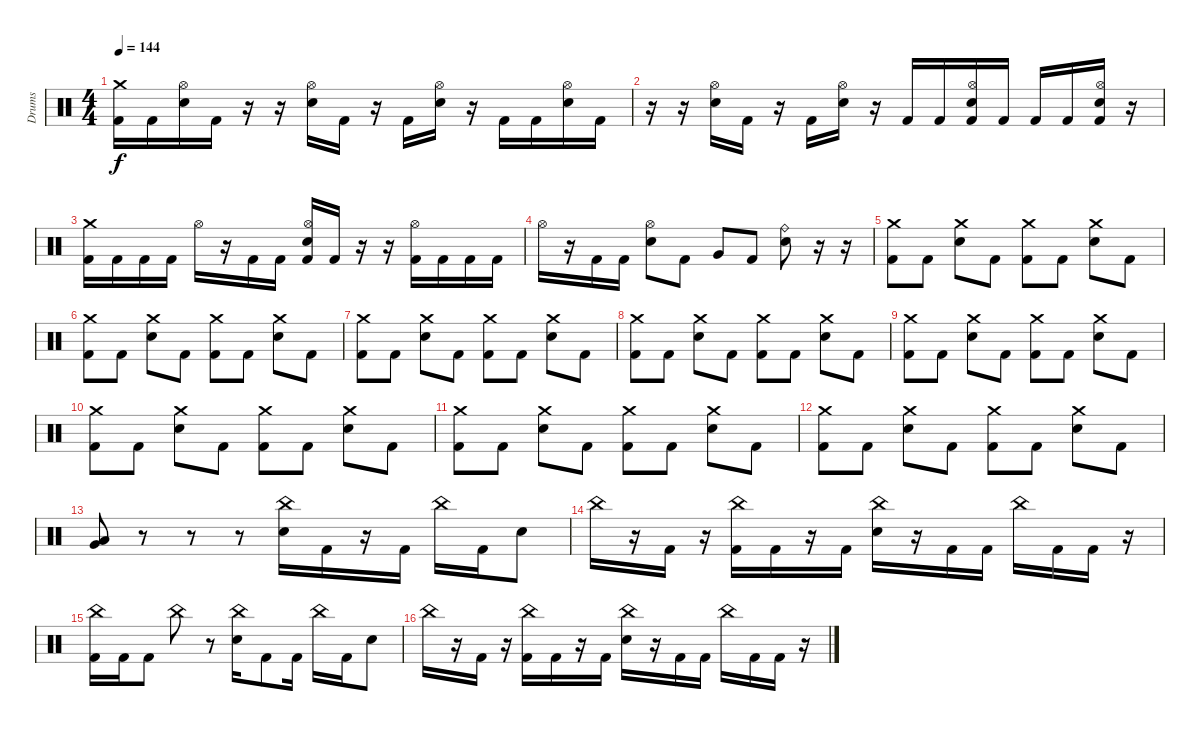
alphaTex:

\track ("Drums" "Drums") {instrument percussion}
\staff {score}
\articulation defaults
\ts (4 4)
\tempo 144
\clef neutral
\ks c
("Crash medium (hit)" "Kick (hit) 2").16{dy f} "Kick (hit) 2".16 ("Hi-Hat (open)" "Electric Snare (hit)").16 "Kick (hit) 2".16 r.16 r.16 ("Hi-Hat (open)" "Electric Snare (hit)").16 "Kick (hit) 2".16 r.16 "Kick (hit) 2".16 ("Hi-Hat (open)" "Electric Snare (hit)").16 r.16 "Kick (hit) 2".16 "Kick (hit) 2".16 ("Hi-Hat (open)" "Electric Snare (hit)").16 "Kick (hit) 2".16 |
r.16 r.16 ("Hi-Hat (open)" "Electric Snare (hit)").16 "Kick (hit) 2".16 r.16 "Kick (hit) 2".16 ("Hi-Hat (open)" "Electric Snare (hit)").16 r.16 "Kick (hit) 2".16 "Kick (hit) 2".16 ("Hi-Hat (open)" "Electric Snare (hit)" "Kick (hit) 2").16 "Kick (hit) 2".16 "Kick (hit) 2".16 "Kick (hit) 2".16 ("Hi-Hat (open)" "Electric Snare (hit)" "Kick (hit) 2").16 r.16 |
("Crash medium (hit)" "Kick (hit) 2").16 "Kick (hit) 2".16 "Kick (hit) 2".16 "Kick (hit) 2".16 "Hi-Hat (open)".16 r.16 "Kick (hit) 2".16 "Kick (hit) 2".16 ("Hi-Hat (open)" "Electric Snare (hit)" "Kick (hit) 2").16 "Kick (hit) 2".16 r.16 r.16 ("Hi-Hat (open)" "Kick (hit) 2").16 "Kick (hit) 2".16 "Kick (hit) 2".16 "Kick (hit) 2".16 |
"Hi-Hat (open)".16 r.16 "Kick (hit) 2".16 "Kick (hit) 2".16 ("Hi-Hat (open)" "Electric Snare (hit)").8 "Kick (hit) 2".8 "Very Low Tom (hit)".8 "Kick (hit) 2".8 ("Ride (bell)" "Electric Snare (hit)").8 r.16 r.16 |
("Crash medium (hit)" "Kick (hit) 2").8 "Kick (hit) 2".8 ("Crash medium (hit)" "Electric Snare (hit)").8 "Kick (hit) 2".8 ("Crash medium (hit)" "Kick (hit) 2").8 "Kick (hit) 2".8 ("Crash medium (hit)" "Electric Snare (hit)").8 "Kick (hit) 2".8 |
("Crash medium (hit)" "Kick (hit) 2").8 "Kick (hit) 2".8 ("Crash medium (hit)" "Electric Snare (hit)").8 "Kick (hit) 2".8 ("Crash medium (hit)" "Kick (hit) 2").8 "Kick (hit) 2".8 ("Crash medium (hit)" "Electric Snare (hit)").8 "Kick (hit) 2".8 |
("Crash medium (hit)" "Kick (hit) 2").8 "Kick (hit) 2".8 ("Crash medium (hit)" "Electric Snare (hit)").8 "Kick (hit) 2".8 ("Crash medium (hit)" "Kick (hit) 2").8 "Kick (hit) 2".8 ("Crash medium (hit)" "Electric Snare (hit)").8 "Kick (hit) 2".8 |
("Crash medium (hit)" "Kick (hit) 2").8 "Kick (hit) 2".8 ("Crash medium (hit)" "Electric Snare (hit)").8 "Kick (hit) 2".8 ("Crash medium (hit)" "Kick (hit) 2").8 "Kick (hit) 2".8 ("Crash medium (hit)" "Electric Snare (hit)").8 "Kick (hit) 2".8 |
("Crash medium (hit)" "Kick (hit) 2").8 "Kick (hit) 2".8 ("Crash medium (hit)" "Electric Snare (hit)").8 "Kick (hit) 2".8 ("Crash medium (hit)" "Kick (hit) 2").8 "Kick (hit) 2".8 ("Crash medium (hit)" "Electric Snare (hit)").8 "Kick (hit) 2".8 |
("Crash medium (hit)" "Kick (hit) 2").8 "Kick (hit) 2".8 ("Crash medium (hit)" "Electric Snare (hit)").8 "Kick (hit) 2".8 ("Crash medium (hit)" "Kick (hit) 2").8 "Kick (hit) 2".8 ("Crash medium (hit)" "Electric Snare (hit)").8 "Kick (hit) 2".8 |
("Crash medium (hit)" "Kick (hit) 2").8 "Kick (hit) 2".8 ("Crash medium (hit)" "Electric Snare (hit)").8 "Kick (hit) 2".8 ("Crash medium (hit)" "Kick (hit) 2").8 "Kick (hit) 2".8 ("Crash medium (hit)" "Electric Snare (hit)").8 "Kick (hit) 2".8 |
("Crash medium (hit)" "Kick (hit) 2").8 "Kick (hit) 2".8 ("Crash medium (hit)" "Electric Snare (hit)").8 "Kick (hit) 2".8 ("Crash medium (hit)" "Kick (hit) 2").8 "Kick (hit) 2".8 ("Crash medium (hit)" "Electric Snare (hit)").8 "Kick (hit) 2".8 |
("Low Floor Tom (hit)" "Very Low Tom (hit)").8 r.8 r.8 r.8 ("China (hit)" "Electric Snare (hit)").16 "Kick (hit) 2".16 r.16 "Kick (hit) 2".16 "China (hit)".16 "Kick (hit) 2".16 "Electric Snare (hit)".8 |
"China (hit)".16 r.16 "Kick (hit) 2".16 r.16 ("China (hit)" "Kick (hit) 2").16 "Kick (hit) 2".16 r.16 "Kick (hit) 2".16 ("China (hit)" "Electric Snare (hit)").16 r.16 "Kick (hit) 2".16 "Kick (hit) 2".16 "China (hit)".16 "Kick (hit) 2".16 "Kick (hit) 2".16 r.16 |
("China (hit)" "Kick (hit) 2").16 "Kick (hit) 2".16 "Kick (hit) 2".8 "China (hit)".8 r.8 ("China (hit)" "Electric Snare (hit)").16 "Kick (hit) 2".8 "Kick (hit) 2".16 "China (hit)".16 "Kick (hit) 2".16 "Electric Snare (hit)".8 |
"China (hit)".16 r.16 "Kick (hit) 2".16 r.16 ("China (hit)" "Kick (hit) 2").16 "Kick (hit) 2".16 r.16 "Kick (hit) 2".16 ("China (hit)" "Electric Snare (hit)").16 r.16 "Kick (hit) 2".16 "Kick (hit) 2".16 "China (hit)".16 "Kick (hit) 2".16 "Kick (hit) 2".16 r.16
